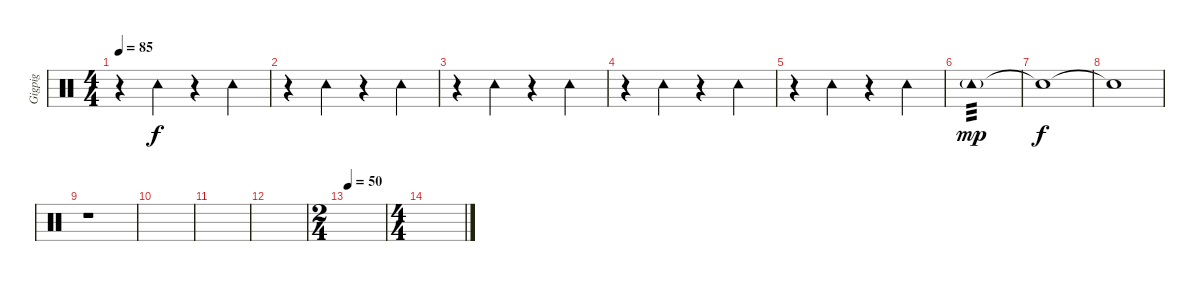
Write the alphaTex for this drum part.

\track ("Gigpig" "Gigpig") {instrument percussion}
\staff {score}
\articulation defaults
\ts (4 4)
\tempo 85
\clef neutral
\ks c
r.4{dy f} "Tambourine (hit)".4 r.4 "Tambourine (hit)".4 |
r.4 "Tambourine (hit)".4 r.4 "Tambourine (hit)".4 |
r.4 "Tambourine (hit)".4 r.4 "Tambourine (hit)".4 |
r.4 "Tambourine (hit)".4 r.4 "Tambourine (hit)".4 |
r.4 "Tambourine (hit)".4 r.4 "Tambourine (hit)".4 |
"Tambourine (hit)"{g}.1{tp 3 dy mp volume 4} |
"Snare (hit)"{t}.1{dy f} |
"Snare (hit)"{t}.1 |
r.1 |
|
|
|
\ts (2 4)
\tempo 50
|
\ts (4 4)
